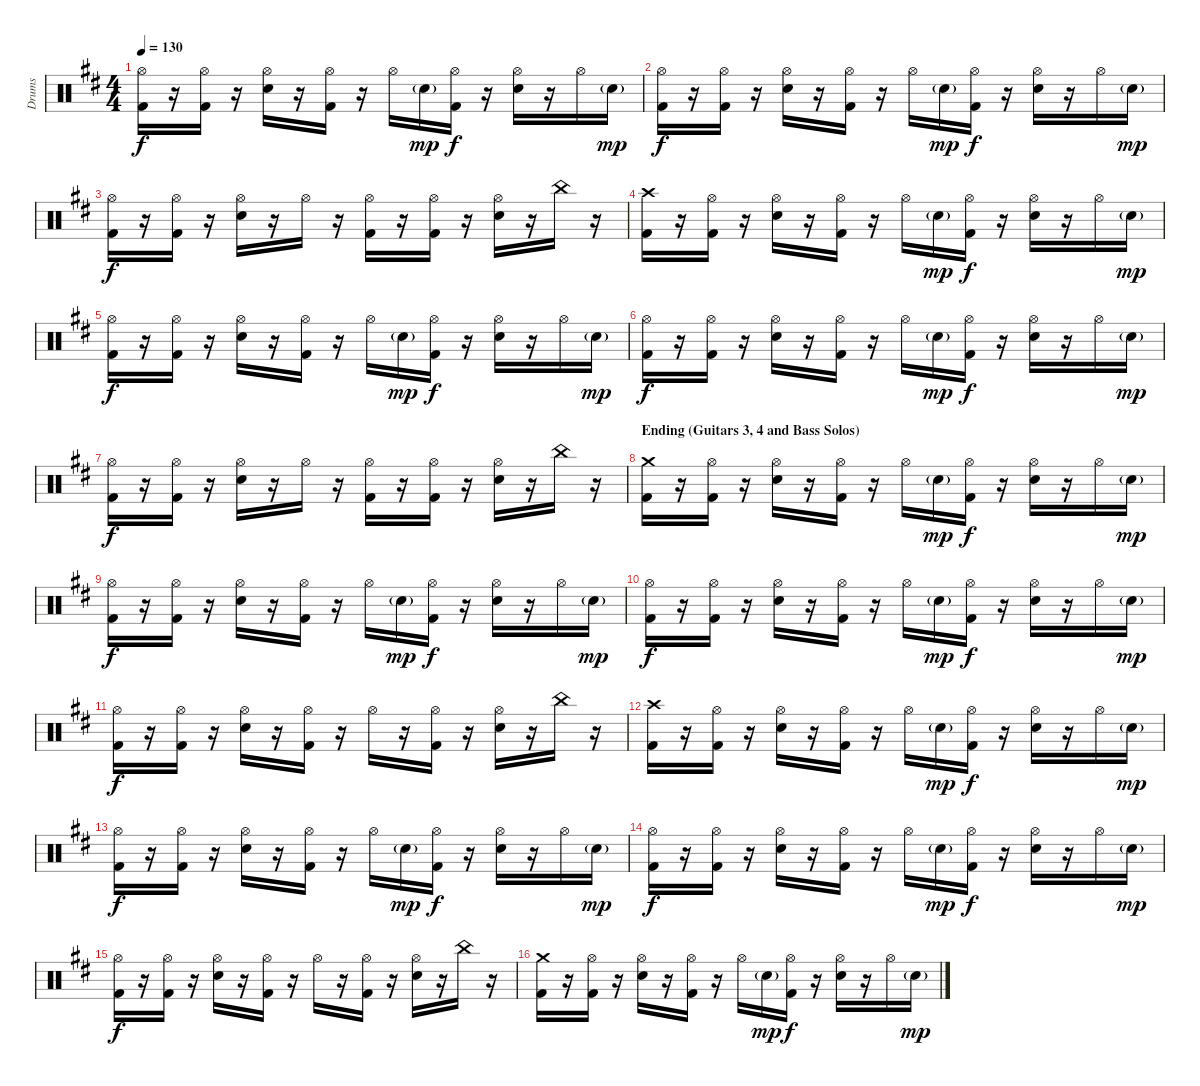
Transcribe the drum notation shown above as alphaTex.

\track ("Drums" "Drums") {instrument percussion}
\staff {score}
\articulation defaults
\ts (4 4)
\tempo 130
\clef neutral
\ks d
("Hi-Hat (open)" "Kick (hit) 2").16{dy f} r.16 ("Hi-Hat (open)" "Kick (hit) 2").16 r.16 ("Hi-Hat (open)" "Electric Snare (hit)").16 r.16 ("Hi-Hat (open)" "Kick (hit) 2").16 r.16 "Hi-Hat (open)".16 "Electric Snare (hit)"{g}.16{dy mp} ("Hi-Hat (open)" "Kick (hit) 2").16{dy f} r.16 ("Hi-Hat (open)" "Electric Snare (hit)").16 r.16 "Hi-Hat (open)".16 "Electric Snare (hit)"{g}.16{dy mp} |
("Hi-Hat (open)" "Kick (hit) 2").16{dy f} r.16 ("Hi-Hat (open)" "Kick (hit) 2").16 r.16 ("Hi-Hat (open)" "Electric Snare (hit)").16 r.16 ("Hi-Hat (open)" "Kick (hit) 2").16 r.16 "Hi-Hat (open)".16 "Electric Snare (hit)"{g}.16{dy mp} ("Hi-Hat (open)" "Kick (hit) 2").16{dy f} r.16 ("Hi-Hat (open)" "Electric Snare (hit)").16 r.16 "Hi-Hat (open)".16 "Electric Snare (hit)"{g}.16{dy mp} |
("Hi-Hat (open)" "Kick (hit) 2").16{dy f} r.16 ("Hi-Hat (open)" "Kick (hit) 2").16 r.16 ("Hi-Hat (open)" "Electric Snare (hit)").16 r.16 "Hi-Hat (open)".16 r.16 ("Hi-Hat (open)" "Kick (hit) 2").16 r.16 ("Hi-Hat (open)" "Kick (hit) 2").16 r.16 ("Hi-Hat (open)" "Electric Snare (hit)").16 r.16 "China (hit)".16 r.16 |
("Crash high (hit)" "Kick (hit) 2").16 r.16 ("Hi-Hat (open)" "Kick (hit) 2").16 r.16 ("Hi-Hat (open)" "Electric Snare (hit)").16 r.16 ("Hi-Hat (open)" "Kick (hit) 2").16 r.16 "Hi-Hat (open)".16 "Electric Snare (hit)"{g}.16{dy mp} ("Hi-Hat (open)" "Kick (hit) 2").16{dy f} r.16 ("Hi-Hat (open)" "Electric Snare (hit)").16 r.16 "Hi-Hat (open)".16 "Electric Snare (hit)"{g}.16{dy mp} |
("Hi-Hat (open)" "Kick (hit) 2").16{dy f} r.16 ("Hi-Hat (open)" "Kick (hit) 2").16 r.16 ("Hi-Hat (open)" "Electric Snare (hit)").16 r.16 ("Hi-Hat (open)" "Kick (hit) 2").16 r.16 "Hi-Hat (open)".16 "Electric Snare (hit)"{g}.16{dy mp} ("Hi-Hat (open)" "Kick (hit) 2").16{dy f} r.16 ("Hi-Hat (open)" "Electric Snare (hit)").16 r.16 "Hi-Hat (open)".16 "Electric Snare (hit)"{g}.16{dy mp} |
("Hi-Hat (open)" "Kick (hit) 2").16{dy f} r.16 ("Hi-Hat (open)" "Kick (hit) 2").16 r.16 ("Hi-Hat (open)" "Electric Snare (hit)").16 r.16 ("Hi-Hat (open)" "Kick (hit) 2").16 r.16 "Hi-Hat (open)".16 "Electric Snare (hit)"{g}.16{dy mp} ("Hi-Hat (open)" "Kick (hit) 2").16{dy f} r.16 ("Hi-Hat (open)" "Electric Snare (hit)").16 r.16 "Hi-Hat (open)".16 "Electric Snare (hit)"{g}.16{dy mp} |
("Hi-Hat (open)" "Kick (hit) 2").16{dy f} r.16 ("Hi-Hat (open)" "Kick (hit) 2").16 r.16 ("Hi-Hat (open)" "Electric Snare (hit)").16 r.16 "Hi-Hat (open)".16 r.16 ("Hi-Hat (open)" "Kick (hit) 2").16 r.16 ("Hi-Hat (open)" "Kick (hit) 2").16 r.16 ("Hi-Hat (open)" "Electric Snare (hit)").16 r.16 "China (hit)".16 r.16 |
\section ("" "Ending (Guitars 3, 4 and Bass Solos)")
\ks bminor
("Crash medium (hit)" "Kick (hit) 2").16 r.16 ("Hi-Hat (open)" "Kick (hit) 2").16 r.16 ("Hi-Hat (open)" "Electric Snare (hit)").16 r.16 ("Hi-Hat (open)" "Kick (hit) 2").16 r.16 "Hi-Hat (open)".16 "Electric Snare (hit)"{g}.16{dy mp} ("Hi-Hat (open)" "Kick (hit) 2").16{dy f} r.16 ("Hi-Hat (open)" "Electric Snare (hit)").16 r.16 "Hi-Hat (open)".16 "Electric Snare (hit)"{g}.16{dy mp} |
("Hi-Hat (open)" "Kick (hit) 2").16{dy f} r.16 ("Hi-Hat (open)" "Kick (hit) 2").16 r.16 ("Hi-Hat (open)" "Electric Snare (hit)").16 r.16 ("Hi-Hat (open)" "Kick (hit) 2").16 r.16 "Hi-Hat (open)".16 "Electric Snare (hit)"{g}.16{dy mp} ("Hi-Hat (open)" "Kick (hit) 2").16{dy f} r.16 ("Hi-Hat (open)" "Electric Snare (hit)").16 r.16 "Hi-Hat (open)".16 "Electric Snare (hit)"{g}.16{dy mp} |
("Hi-Hat (open)" "Kick (hit) 2").16{dy f} r.16 ("Hi-Hat (open)" "Kick (hit) 2").16 r.16 ("Hi-Hat (open)" "Electric Snare (hit)").16 r.16 ("Hi-Hat (open)" "Kick (hit) 2").16 r.16 "Hi-Hat (open)".16 "Electric Snare (hit)"{g}.16{dy mp} ("Hi-Hat (open)" "Kick (hit) 2").16{dy f} r.16 ("Hi-Hat (open)" "Electric Snare (hit)").16 r.16 "Hi-Hat (open)".16 "Electric Snare (hit)"{g}.16{dy mp} |
("Hi-Hat (open)" "Kick (hit) 2").16{dy f} r.16 ("Hi-Hat (open)" "Kick (hit) 2").16 r.16 ("Hi-Hat (open)" "Electric Snare (hit)").16 r.16 ("Hi-Hat (open)" "Kick (hit) 2").16 r.16 "Hi-Hat (open)".16 r.16 ("Hi-Hat (open)" "Kick (hit) 2").16 r.16 ("Hi-Hat (open)" "Electric Snare (hit)").16 r.16 "China (hit)".16 r.16 |
("Crash high (hit)" "Kick (hit) 2").16 r.16 ("Hi-Hat (open)" "Kick (hit) 2").16 r.16 ("Hi-Hat (open)" "Electric Snare (hit)").16 r.16 ("Hi-Hat (open)" "Kick (hit) 2").16 r.16 "Hi-Hat (open)".16 "Electric Snare (hit)"{g}.16{dy mp} ("Hi-Hat (open)" "Kick (hit) 2").16{dy f} r.16 ("Hi-Hat (open)" "Electric Snare (hit)").16 r.16 "Hi-Hat (open)".16 "Electric Snare (hit)"{g}.16{dy mp} |
("Hi-Hat (open)" "Kick (hit) 2").16{dy f} r.16 ("Hi-Hat (open)" "Kick (hit) 2").16 r.16 ("Hi-Hat (open)" "Electric Snare (hit)").16 r.16 ("Hi-Hat (open)" "Kick (hit) 2").16 r.16 "Hi-Hat (open)".16 "Electric Snare (hit)"{g}.16{dy mp} ("Hi-Hat (open)" "Kick (hit) 2").16{dy f} r.16 ("Hi-Hat (open)" "Electric Snare (hit)").16 r.16 "Hi-Hat (open)".16 "Electric Snare (hit)"{g}.16{dy mp} |
("Hi-Hat (open)" "Kick (hit) 2").16{dy f} r.16 ("Hi-Hat (open)" "Kick (hit) 2").16 r.16 ("Hi-Hat (open)" "Electric Snare (hit)").16 r.16 ("Hi-Hat (open)" "Kick (hit) 2").16 r.16 "Hi-Hat (open)".16 "Electric Snare (hit)"{g}.16{dy mp} ("Hi-Hat (open)" "Kick (hit) 2").16{dy f} r.16 ("Hi-Hat (open)" "Electric Snare (hit)").16 r.16 "Hi-Hat (open)".16 "Electric Snare (hit)"{g}.16{dy mp} |
("Hi-Hat (open)" "Kick (hit) 2").16{dy f} r.16 ("Hi-Hat (open)" "Kick (hit) 2").16 r.16 ("Hi-Hat (open)" "Electric Snare (hit)").16 r.16 ("Hi-Hat (open)" "Kick (hit) 2").16 r.16 "Hi-Hat (open)".16 r.16 ("Hi-Hat (open)" "Kick (hit) 2").16 r.16 ("Hi-Hat (open)" "Electric Snare (hit)").16 r.16 "China (hit)".16 r.16 |
\ks d
("Crash medium (hit)" "Kick (hit) 2").16 r.16 ("Hi-Hat (open)" "Kick (hit) 2").16 r.16 ("Hi-Hat (open)" "Electric Snare (hit)").16 r.16 ("Hi-Hat (open)" "Kick (hit) 2").16 r.16 "Hi-Hat (open)".16 "Electric Snare (hit)"{g}.16{dy mp} ("Hi-Hat (open)" "Kick (hit) 2").16{dy f} r.16 ("Hi-Hat (open)" "Electric Snare (hit)").16 r.16 "Hi-Hat (open)".16 "Electric Snare (hit)"{g}.16{dy mp}
